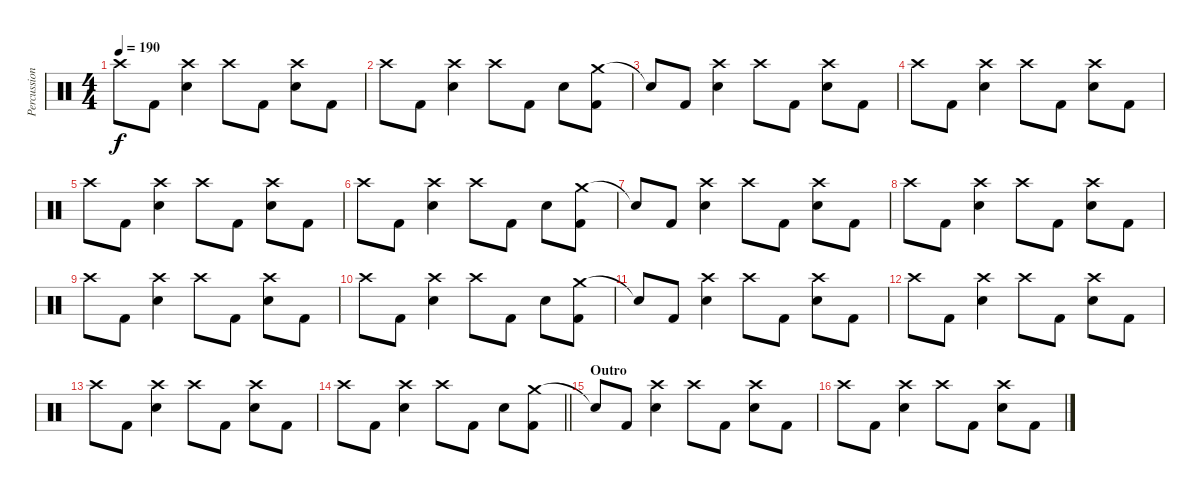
\track ("Percussion" "Percussion") {instrument percussion}
\staff {score}
\articulation defaults
\ts (4 4)
\tempo 190
\clef neutral
\ks c "Crash high (hit)".8{dy f} "Kick (hit) 2".8
("Crash high (hit)" "Electric Snare (hit)").4 "Crash high (hit)".8 "Kick (hit) 2".8 ("Crash high (hit)" "Electric Snare (hit)").8 "Kick (hit) 2".8 |
"Crash high (hit)".8 "Kick (hit) 2".8 ("Crash high (hit)" "Electric Snare (hit)").4 "Crash high (hit)".8 "Kick (hit) 2".8 "Electric Snare (hit)".8 ("Crash medium (hit)" "Kick (hit) 2").8 |
"Snare (hit)"{t}.8 "Kick (hit) 2".8 ("Crash high (hit)" "Electric Snare (hit)").4 "Crash high (hit)".8 "Kick (hit) 2".8 ("Crash high (hit)" "Electric Snare (hit)").8 "Kick (hit) 2".8 |
"Crash high (hit)".8 "Kick (hit) 2".8 ("Crash high (hit)" "Electric Snare (hit)").4 "Crash high (hit)".8 "Kick (hit) 2".8 ("Crash high (hit)" "Electric Snare (hit)").8 "Kick (hit) 2".8 |
"Crash high (hit)".8 "Kick (hit) 2".8 ("Crash high (hit)" "Electric Snare (hit)").4 "Crash high (hit)".8 "Kick (hit) 2".8 ("Crash high (hit)" "Electric Snare (hit)").8 "Kick (hit) 2".8 |
"Crash high (hit)".8 "Kick (hit) 2".8 ("Crash high (hit)" "Electric Snare (hit)").4 "Crash high (hit)".8 "Kick (hit) 2".8 "Electric Snare (hit)".8 ("Crash medium (hit)" "Kick (hit) 2").8 |
"Snare (hit)"{t}.8 "Kick (hit) 2".8 ("Crash high (hit)" "Electric Snare (hit)").4 "Crash high (hit)".8 "Kick (hit) 2".8 ("Crash high (hit)" "Electric Snare (hit)").8 "Kick (hit) 2".8 |
"Crash high (hit)".8 "Kick (hit) 2".8 ("Crash high (hit)" "Electric Snare (hit)").4 "Crash high (hit)".8 "Kick (hit) 2".8 ("Crash high (hit)" "Electric Snare (hit)").8 "Kick (hit) 2".8 |
"Crash high (hit)".8 "Kick (hit) 2".8 ("Crash high (hit)" "Electric Snare (hit)").4 "Crash high (hit)".8 "Kick (hit) 2".8 ("Crash high (hit)" "Electric Snare (hit)").8 "Kick (hit) 2".8 |
"Crash high (hit)".8 "Kick (hit) 2".8 ("Crash high (hit)" "Electric Snare (hit)").4 "Crash high (hit)".8 "Kick (hit) 2".8 "Electric Snare (hit)".8 ("Crash medium (hit)" "Kick (hit) 2").8 |
"Snare (hit)"{t}.8 "Kick (hit) 2".8 ("Crash high (hit)" "Electric Snare (hit)").4 "Crash high (hit)".8 "Kick (hit) 2".8 ("Crash high (hit)" "Electric Snare (hit)").8 "Kick (hit) 2".8 |
"Crash high (hit)".8 "Kick (hit) 2".8 ("Crash high (hit)" "Electric Snare (hit)").4 "Crash high (hit)".8 "Kick (hit) 2".8 ("Crash high (hit)" "Electric Snare (hit)").8 "Kick (hit) 2".8 |
"Crash high (hit)".8 "Kick (hit) 2".8 ("Crash high (hit)" "Electric Snare (hit)").4 "Crash high (hit)".8 "Kick (hit) 2".8 ("Crash high (hit)" "Electric Snare (hit)").8 "Kick (hit) 2".8 |
\barLineRight lightlight "Crash high (hit)".8 "Kick (hit) 2".8
("Crash high (hit)" "Electric Snare (hit)").4 "Crash high (hit)".8 "Kick (hit) 2".8 "Electric Snare (hit)".8 ("Crash medium (hit)" "Kick (hit) 2").8 |
\section ("" "Outro")
"Snare (hit)"{t}.8 "Kick (hit) 2".8 ("Crash high (hit)" "Electric Snare (hit)").4 "Crash high (hit)".8 "Kick (hit) 2".8 ("Crash high (hit)" "Electric Snare (hit)").8 "Kick (hit) 2".8 |
"Crash high (hit)".8 "Kick (hit) 2".8 ("Crash high (hit)" "Electric Snare (hit)").4 "Crash high (hit)".8 "Kick (hit) 2".8 ("Crash high (hit)" "Electric Snare (hit)").8 "Kick (hit) 2".8
